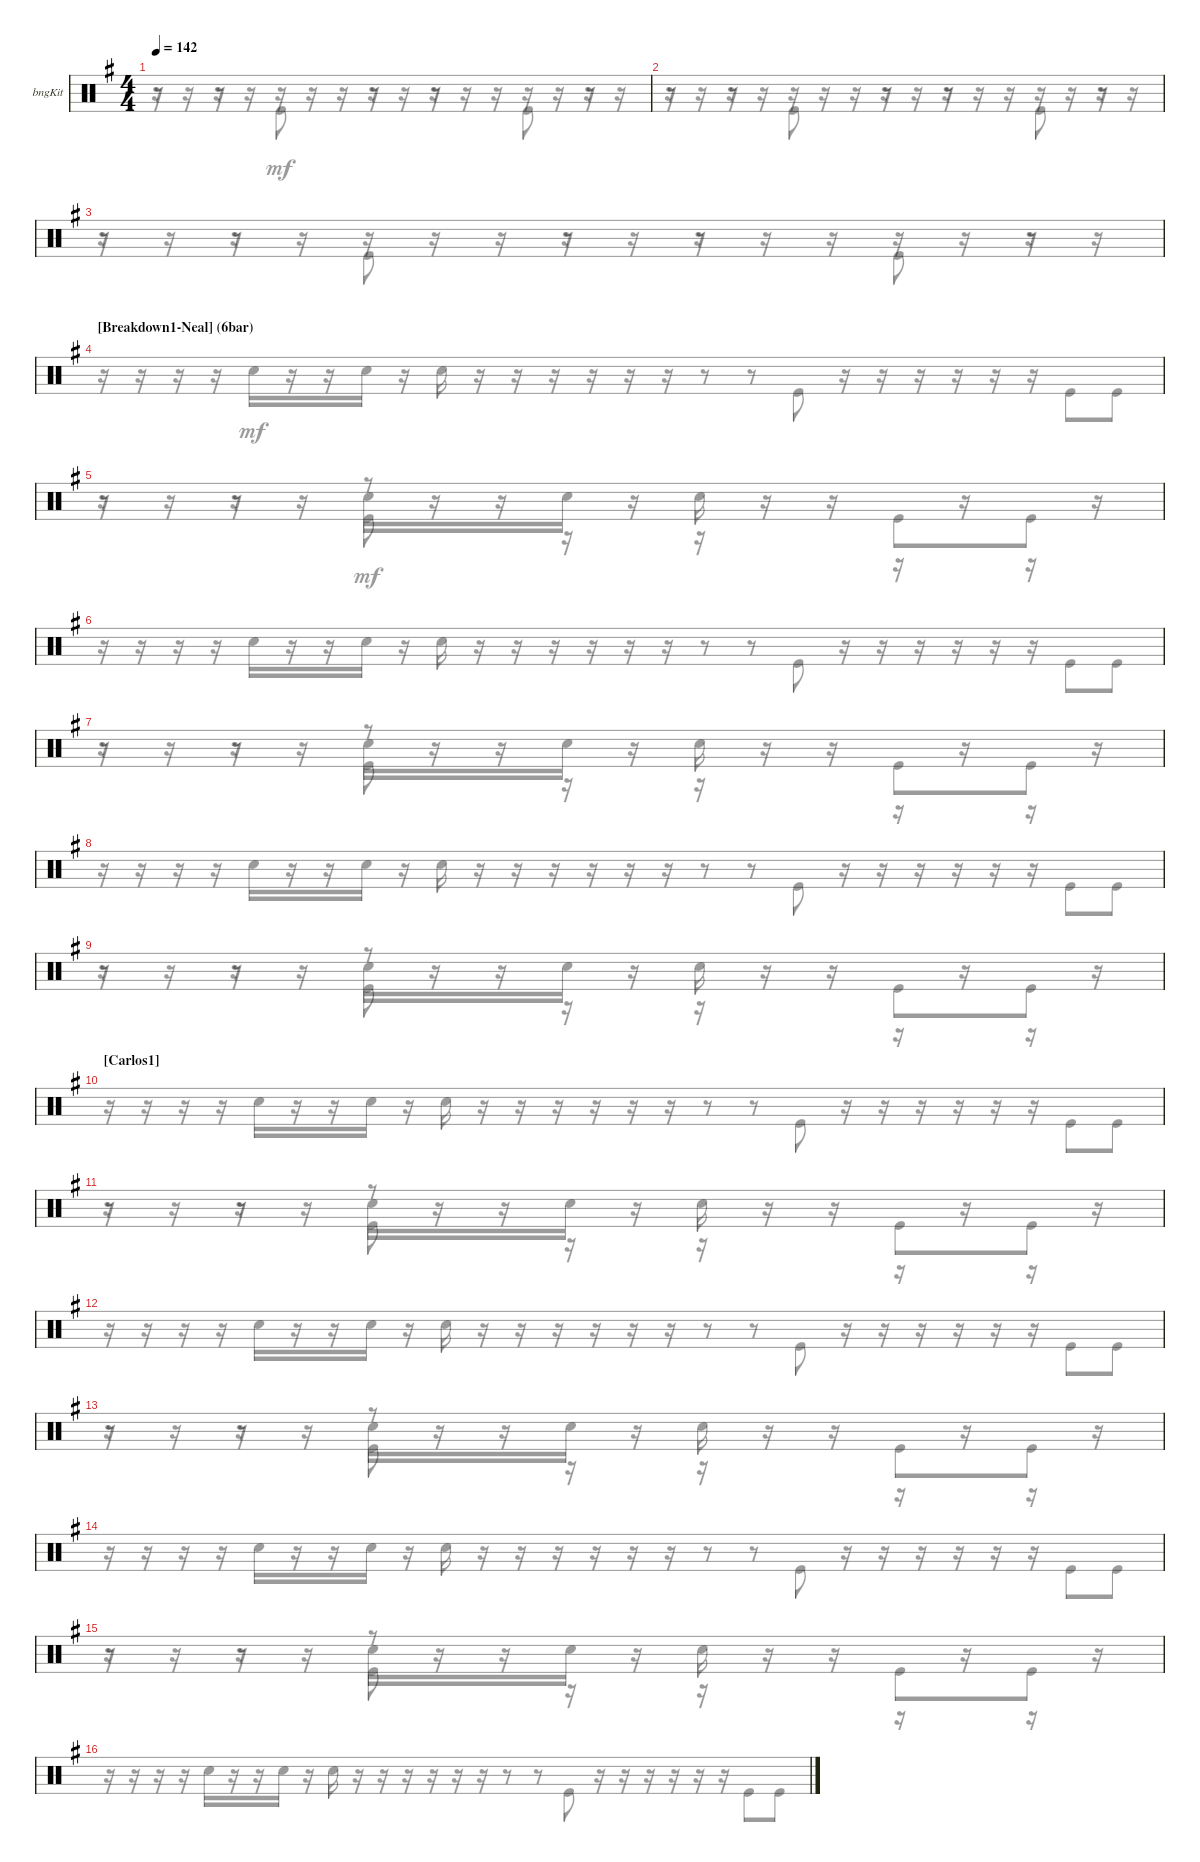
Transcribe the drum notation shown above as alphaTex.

\bracketExtendMode groupsimilarinstruments
\firstSystemTrackNameOrientation horizontal
\otherSystemsTrackNameOrientation horizontal
\track ("Bongos" "bngKit") {instrument percussion}
\staff {score}
\articulation defaults
\voice
\ts (4 4)
\tempo 142
\clef neutral
\ks eminor
|
|
|
\section ("" "[Breakdown1-Neal] (6bar)    ")
|
|
|
|
|
|
\section ("" "[Carlos1] ")
|
|
|
|
|
|
\voice
\clef neutral
\ks eminor
r.16{dy mf} r.16 r.16 r.16 r.16 r.16 r.16 r.16 r.16 r.16 r.16 r.16 r.16 r.16 r.16 r.16 |
r.16 r.16 r.16 r.16 r.16 r.16 r.16 r.16 r.16 r.16 r.16 r.16 r.16 r.16 r.16 r.16 |
r.16 r.16 r.16 r.16 r.16 r.16 r.16 r.16 r.16 r.16 r.16 r.16 r.16 r.16 r.16 r.16 |
r.16 r.16 r.16 r.16 "Snare (hit) 2".16 r.16 r.16 "Snare (hit) 2".16 r.16 "Snare (hit) 2".16 r.16 r.16 r.16 r.16 r.16 r.16 r.8 r.8 "Kick (hit)".8 r.16 r.16 r.16 r.16 r.16 r.16 "Kick (hit)".8 "Kick (hit)".8 |
r.8 r.8 r.8 |
r.16 r.16 r.16 r.16 "Snare (hit) 2".16 r.16 r.16 "Snare (hit) 2".16 r.16 "Snare (hit) 2".16 r.16 r.16 r.16 r.16 r.16 r.16 r.8 r.8 "Kick (hit)".8 r.16 r.16 r.16 r.16 r.16 r.16 "Kick (hit)".8 "Kick (hit)".8 |
r.8 r.8 r.8 |
r.16 r.16 r.16 r.16 "Snare (hit) 2".16 r.16 r.16 "Snare (hit) 2".16 r.16 "Snare (hit) 2".16 r.16 r.16 r.16 r.16 r.16 r.16 r.8 r.8 "Kick (hit)".8 r.16 r.16 r.16 r.16 r.16 r.16 "Kick (hit)".8 "Kick (hit)".8 |
r.8 r.8 r.8 |
r.16 r.16 r.16 r.16 "Snare (hit) 2".16 r.16 r.16 "Snare (hit) 2".16 r.16 "Snare (hit) 2".16 r.16 r.16 r.16 r.16 r.16 r.16 r.8 r.8 "Kick (hit)".8 r.16 r.16 r.16 r.16 r.16 r.16 "Kick (hit)".8 "Kick (hit)".8 |
r.8 r.8 r.8 |
r.16 r.16 r.16 r.16 "Snare (hit) 2".16 r.16 r.16 "Snare (hit) 2".16 r.16 "Snare (hit) 2".16 r.16 r.16 r.16 r.16 r.16 r.16 r.8 r.8 "Kick (hit)".8 r.16 r.16 r.16 r.16 r.16 r.16 "Kick (hit)".8 "Kick (hit)".8 |
r.8 r.8 r.8 |
r.16 r.16 r.16 r.16 "Snare (hit) 2".16 r.16 r.16 "Snare (hit) 2".16 r.16 "Snare (hit) 2".16 r.16 r.16 r.16 r.16 r.16 r.16 r.8 r.8 "Kick (hit)".8 r.16 r.16 r.16 r.16 r.16 r.16 "Kick (hit)".8 "Kick (hit)".8 |
r.8 r.8 r.8 |
r.16 r.16 r.16 r.16 "Snare (hit) 2".16 r.16 r.16 "Snare (hit) 2".16 r.16 "Snare (hit) 2".16 r.16 r.16 r.16 r.16 r.16 r.16 r.8 r.8 "Kick (hit)".8 r.16 r.16 r.16 r.16 r.16 r.16 "Kick (hit)".8 "Kick (hit)".8
\voice
\clef neutral
\ottava regular
\simile none
\ks eminor
r.16{dy mf} r.16 r.16 r.16 r.16 r.16 r.16 r.16 r.16 r.16 r.16 r.16 r.16 r.16 r.16 r.16 |
r.16 r.16 r.16 r.16 r.16 r.16 r.16 r.16 r.16 r.16 r.16 r.16 r.16 r.16 r.16 r.16 |
r.16 r.16 r.16 r.16 r.16 r.16 r.16 r.16 r.16 r.16 r.16 r.16 r.16 r.16 r.16 r.16 |
|
r.16 r.16 r.16 r.16 "Snare (hit) 2".16 r.16 r.16 "Snare (hit) 2".16 r.16 "Snare (hit) 2".16 r.16 r.16 r.16 r.16 r.16 r.16 |
|
r.16 r.16 r.16 r.16 "Snare (hit) 2".16 r.16 r.16 "Snare (hit) 2".16 r.16 "Snare (hit) 2".16 r.16 r.16 r.16 r.16 r.16 r.16 |
|
r.16 r.16 r.16 r.16 "Snare (hit) 2".16 r.16 r.16 "Snare (hit) 2".16 r.16 "Snare (hit) 2".16 r.16 r.16 r.16 r.16 r.16 r.16 |
|
r.16 r.16 r.16 r.16 "Snare (hit) 2".16 r.16 r.16 "Snare (hit) 2".16 r.16 "Snare (hit) 2".16 r.16 r.16 r.16 r.16 r.16 r.16 |
|
r.16 r.16 r.16 r.16 "Snare (hit) 2".16 r.16 r.16 "Snare (hit) 2".16 r.16 "Snare (hit) 2".16 r.16 r.16 r.16 r.16 r.16 r.16 |
|
r.16 r.16 r.16 r.16 "Snare (hit) 2".16 r.16 r.16 "Snare (hit) 2".16 r.16 "Snare (hit) 2".16 r.16 r.16 r.16 r.16 r.16 r.16 |
\voice
\clef neutral
\ottava regular
\simile none
\ks eminor
r.8{dy mf} r.8 "Kick (hit)".8 r.16 r.8 r.8 r.16 "Kick (hit)".8 r.8 |
r.8 r.8 "Kick (hit)".8 r.16 r.8 r.8 r.16 "Kick (hit)".8 r.8 |
r.8 r.8 "Kick (hit)".8 r.16 r.8 r.8 r.16 "Kick (hit)".8 r.8 |
|
r.8 r.8 "Kick (hit)".8 r.16 r.16 r.16 r.16 r.16 r.16 "Kick (hit)".8 "Kick (hit)".8 |
|
r.8 r.8 "Kick (hit)".8 r.16 r.16 r.16 r.16 r.16 r.16 "Kick (hit)".8 "Kick (hit)".8 |
|
r.8 r.8 "Kick (hit)".8 r.16 r.16 r.16 r.16 r.16 r.16 "Kick (hit)".8 "Kick (hit)".8 |
|
r.8 r.8 "Kick (hit)".8 r.16 r.16 r.16 r.16 r.16 r.16 "Kick (hit)".8 "Kick (hit)".8 |
|
r.8 r.8 "Kick (hit)".8 r.16 r.16 r.16 r.16 r.16 r.16 "Kick (hit)".8 "Kick (hit)".8 |
|
r.8 r.8 "Kick (hit)".8 r.16 r.16 r.16 r.16 r.16 r.16 "Kick (hit)".8 "Kick (hit)".8 |
